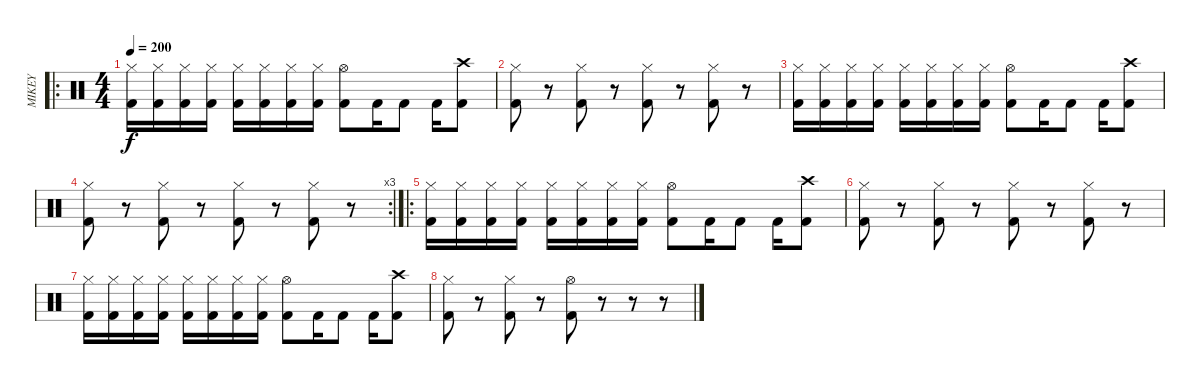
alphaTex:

\track ("MIKEY" "MIKEY") {instrument percussion}
\staff {score}
\articulation defaults
\ro
\ts (4 4)
\tempo 200
\clef neutral
\ks c
("Hi-Hat (closed)" "Kick (hit) 2").16{dy f} ("Hi-Hat (closed)" "Kick (hit) 2").16 ("Hi-Hat (closed)" "Kick (hit) 2").16 ("Hi-Hat (closed)" "Kick (hit) 2").16 ("Hi-Hat (closed)" "Kick (hit) 2").16 ("Hi-Hat (closed)" "Kick (hit) 2").16 ("Hi-Hat (closed)" "Kick (hit) 2").16 ("Hi-Hat (closed)" "Kick (hit) 2").16 ("Hi-Hat (open)" "Kick (hit) 2").8 "Kick (hit) 2".16 "Kick (hit) 2".8 "Kick (hit) 2".16 ("Crash high (hit)" "Kick (hit) 2").8 |
("Hi-Hat (closed)" "Kick (hit) 2").8 r.8 ("Hi-Hat (closed)" "Kick (hit) 2").8 r.8 ("Hi-Hat (closed)" "Kick (hit) 2").8 r.8 ("Hi-Hat (closed)" "Kick (hit) 2").8 r.8 |
("Hi-Hat (closed)" "Kick (hit) 2").16 ("Hi-Hat (closed)" "Kick (hit) 2").16 ("Hi-Hat (closed)" "Kick (hit) 2").16 ("Hi-Hat (closed)" "Kick (hit) 2").16 ("Hi-Hat (closed)" "Kick (hit) 2").16 ("Hi-Hat (closed)" "Kick (hit) 2").16 ("Hi-Hat (closed)" "Kick (hit) 2").16 ("Hi-Hat (closed)" "Kick (hit) 2").16 ("Hi-Hat (open)" "Kick (hit) 2").8 "Kick (hit) 2".16 "Kick (hit) 2".8 "Kick (hit) 2".16 ("Crash high (hit)" "Kick (hit) 2").8 |
\rc 3
("Hi-Hat (closed)" "Kick (hit) 2").8 r.8 ("Hi-Hat (closed)" "Kick (hit) 2").8 r.8 ("Hi-Hat (closed)" "Kick (hit) 2").8 r.8 ("Hi-Hat (closed)" "Kick (hit) 2").8 r.8 |
\ro
("Hi-Hat (closed)" "Kick (hit) 2").16 ("Hi-Hat (closed)" "Kick (hit) 2").16 ("Hi-Hat (closed)" "Kick (hit) 2").16 ("Hi-Hat (closed)" "Kick (hit) 2").16 ("Hi-Hat (closed)" "Kick (hit) 2").16 ("Hi-Hat (closed)" "Kick (hit) 2").16 ("Hi-Hat (closed)" "Kick (hit) 2").16 ("Hi-Hat (closed)" "Kick (hit) 2").16 ("Hi-Hat (open)" "Kick (hit) 2").8 "Kick (hit) 2".16 "Kick (hit) 2".8 "Kick (hit) 2".16 ("Crash high (hit)" "Kick (hit) 2").8 |
("Hi-Hat (closed)" "Kick (hit) 2").8 r.8 ("Hi-Hat (closed)" "Kick (hit) 2").8 r.8 ("Hi-Hat (closed)" "Kick (hit) 2").8 r.8 ("Hi-Hat (closed)" "Kick (hit) 2").8 r.8 |
("Hi-Hat (closed)" "Kick (hit) 2").16 ("Hi-Hat (closed)" "Kick (hit) 2").16 ("Hi-Hat (closed)" "Kick (hit) 2").16 ("Hi-Hat (closed)" "Kick (hit) 2").16 ("Hi-Hat (closed)" "Kick (hit) 2").16 ("Hi-Hat (closed)" "Kick (hit) 2").16 ("Hi-Hat (closed)" "Kick (hit) 2").16 ("Hi-Hat (closed)" "Kick (hit) 2").16 ("Hi-Hat (open)" "Kick (hit) 2").8 "Kick (hit) 2".16 "Kick (hit) 2".8 "Kick (hit) 2".16 ("Crash high (hit)" "Kick (hit) 2").8 |
("Hi-Hat (closed)" "Kick (hit) 2").8 r.8 ("Hi-Hat (closed)" "Kick (hit) 2").8 r.8 ("Hi-Hat (open)" "Kick (hit) 2").8 r.8 r.8 r.8
